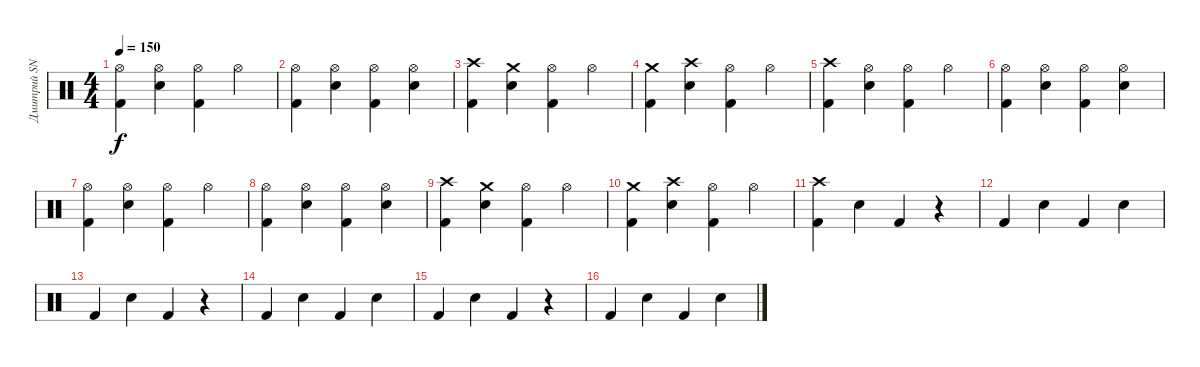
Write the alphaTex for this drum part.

\track ("Дмитрий SNAKE Хакимов" "Дмитрий SN") {instrument percussion}
\staff {score}
\articulation defaults
\ts (4 4)
\tempo 150
\clef neutral
\ks c
("Hi-Hat (open)" "Kick (hit) 2").4{dy f} ("Hi-Hat (open)" "Snare (hit) 2").4 ("Hi-Hat (open)" "Kick (hit) 2").4 "Hi-Hat (open)".4 |
("Hi-Hat (open)" "Kick (hit) 2").4 ("Hi-Hat (open)" "Snare (hit) 2").4 ("Hi-Hat (open)" "Kick (hit) 2").4 ("Hi-Hat (open)" "Snare (hit) 2").4 |
("Crash high (hit)" "Kick (hit) 2").4 ("Crash medium (hit)" "Snare (hit) 2").4 ("Hi-Hat (open)" "Kick (hit) 2").4 "Hi-Hat (open)".4 |
("Crash medium (hit)" "Kick (hit) 2").4 ("Crash high (hit)" "Snare (hit) 2").4 ("Hi-Hat (open)" "Kick (hit) 2").4 "Hi-Hat (open)".4 |
("Crash high (hit)" "Kick (hit) 2").4 ("Hi-Hat (open)" "Snare (hit) 2").4 ("Hi-Hat (open)" "Kick (hit) 2").4 "Hi-Hat (open)".4 |
("Hi-Hat (open)" "Kick (hit) 2").4 ("Hi-Hat (open)" "Snare (hit) 2").4 ("Hi-Hat (open)" "Kick (hit) 2").4 ("Hi-Hat (open)" "Snare (hit) 2").4 |
("Hi-Hat (open)" "Kick (hit) 2").4 ("Hi-Hat (open)" "Snare (hit) 2").4 ("Hi-Hat (open)" "Kick (hit) 2").4 "Hi-Hat (open)".4 |
("Hi-Hat (open)" "Kick (hit) 2").4 ("Hi-Hat (open)" "Snare (hit) 2").4 ("Hi-Hat (open)" "Kick (hit) 2").4 ("Hi-Hat (open)" "Snare (hit) 2").4 |
("Crash high (hit)" "Kick (hit) 2").4 ("Crash medium (hit)" "Snare (hit) 2").4 ("Hi-Hat (open)" "Kick (hit) 2").4 "Hi-Hat (open)".4 |
("Crash medium (hit)" "Kick (hit) 2").4 ("Crash high (hit)" "Snare (hit) 2").4 ("Hi-Hat (open)" "Kick (hit) 2").4 "Hi-Hat (open)".4 |
("Crash high (hit)" "Kick (hit) 2").4 "Snare (hit) 2".4 "Kick (hit) 2".4 r.4 |
"Kick (hit) 2".4 "Snare (hit) 2".4 "Kick (hit) 2".4 "Snare (hit) 2".4 |
"Kick (hit) 2".4 "Snare (hit) 2".4 "Kick (hit) 2".4 r.4 |
"Kick (hit) 2".4 "Snare (hit) 2".4 "Kick (hit) 2".4 "Snare (hit) 2".4 |
"Kick (hit) 2".4 "Snare (hit) 2".4 "Kick (hit) 2".4 r.4 |
"Kick (hit) 2".4 "Snare (hit) 2".4 "Kick (hit) 2".4 "Snare (hit) 2".4
